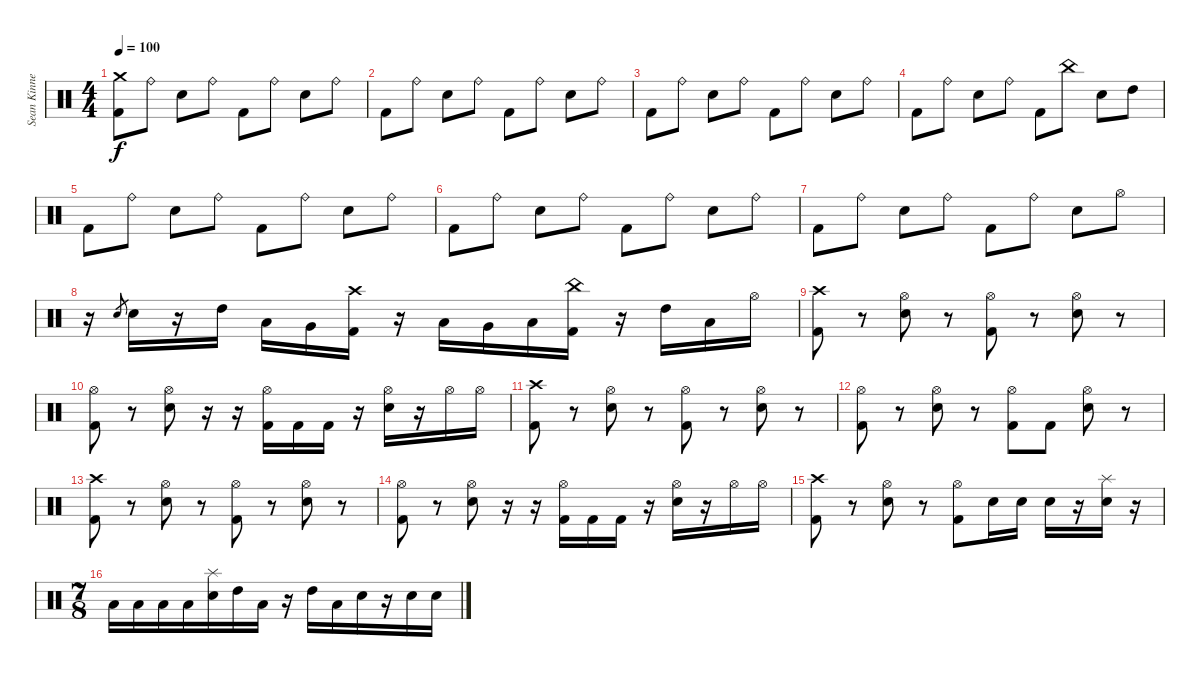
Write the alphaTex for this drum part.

\track ("Sean Kinney" "Sean Kinne") {instrument percussion}
\staff {score}
\articulation defaults
\ts (4 4)
\tempo 100
\clef neutral
\ks c
("Crash medium (hit)" "Kick (hit) 2").8{dy f} "Ride (bell)".8 "Snare (hit) 2".8 "Ride (bell)".8 "Kick (hit) 2".8 "Ride (bell)".8 "Snare (hit) 2".8 "Ride (bell)".8 |
"Kick (hit) 2".8 "Ride (bell)".8 "Snare (hit) 2".8 "Ride (bell)".8 "Kick (hit) 2".8 "Ride (bell)".8 "Snare (hit) 2".8 "Ride (bell)".8 |
"Kick (hit) 2".8 "Ride (bell)".8 "Snare (hit) 2".8 "Ride (bell)".8 "Kick (hit) 2".8 "Ride (bell)".8 "Snare (hit) 2".8 "Ride (bell)".8 |
"Kick (hit) 2".8 "Ride (bell)".8 "Snare (hit) 2".8 "Ride (bell)".8 "Kick (hit) 2".8 "China (hit)".8 "Snare (hit) 2".8 "High Tom (hit)".8 |
"Kick (hit) 2".8 "Ride (bell)".8 "Snare (hit) 2".8 "Ride (bell)".8 "Kick (hit) 2".8 "Ride (bell)".8 "Snare (hit) 2".8 "Ride (bell)".8 |
"Kick (hit) 2".8 "Ride (bell)".8 "Snare (hit) 2".8 "Ride (bell)".8 "Kick (hit) 2".8 "Ride (bell)".8 "Snare (hit) 2".8 "Ride (bell)".8 |
"Kick (hit) 2".8 "Ride (bell)".8 "Snare (hit) 2".8 "Ride (bell)".8 "Kick (hit) 2".8 "Ride (bell)".8 "Snare (hit) 2".8 "Hi-Hat (open)".8 |
r.16 "Snare (hit) 2".8{gr} "Snare (hit) 2".16 r.16 "High Tom (hit)".16 "Low Tom (hit)".16 "Very Low Tom (hit)".16 ("Crash high (hit)" "Kick (hit) 2").16 r.16 "Low Tom (hit)".16 "Very Low Tom (hit)".16 "Low Floor Tom (hit)".16 ("China (hit)" "Kick (hit) 2").16 r.16 "High Tom (hit)".16 "Low Tom (hit)".16 "Hi-Hat (open)".16 |
("Crash high (hit)" "Kick (hit) 2").8 r.8 ("Hi-Hat (open)" "Snare (hit) 2").8 r.8 ("Hi-Hat (open)" "Kick (hit) 2").8 r.8 ("Hi-Hat (open)" "Snare (hit) 2").8 r.8 |
("Hi-Hat (open)" "Kick (hit) 2").8 r.8 ("Hi-Hat (open)" "Snare (hit) 2").8 r.16 r.16 ("Hi-Hat (open)" "Kick (hit) 2").16 "Kick (hit) 2".16 "Kick (hit) 2".16 r.16 ("Hi-Hat (open)" "Snare (hit) 2").16 r.16 "Hi-Hat (open)".16 "Hi-Hat (open)".16 |
("Crash high (hit)" "Kick (hit) 2").8 r.8 ("Hi-Hat (open)" "Snare (hit) 2").8 r.8 ("Hi-Hat (open)" "Kick (hit) 2").8 r.8 ("Hi-Hat (open)" "Snare (hit) 2").8 r.8 |
("Hi-Hat (open)" "Kick (hit) 2").8 r.8 ("Hi-Hat (open)" "Snare (hit) 2").8 r.8 ("Hi-Hat (open)" "Kick (hit) 2").8 "Kick (hit) 2".8 ("Hi-Hat (open)" "Snare (hit) 2").8 r.8 |
("Crash high (hit)" "Kick (hit) 2").8 r.8 ("Hi-Hat (open)" "Snare (hit) 2").8 r.8 ("Hi-Hat (open)" "Kick (hit) 2").8 r.8 ("Hi-Hat (open)" "Snare (hit) 2").8 r.8 |
("Hi-Hat (open)" "Kick (hit) 2").8 r.8 ("Hi-Hat (open)" "Snare (hit) 2").8 r.16 r.16 ("Hi-Hat (open)" "Kick (hit) 2").16 "Kick (hit) 2".16 "Kick (hit) 2".16 r.16 ("Hi-Hat (open)" "Snare (hit) 2").16 r.16 "Hi-Hat (open)".16 "Hi-Hat (open)".16 |
("Crash high (hit)" "Kick (hit) 2").8 r.8 ("Hi-Hat (open)" "Snare (hit) 2").8 r.8 ("Hi-Hat (open)" "Kick (hit) 2").8 "Snare (hit) 2".16 "Snare (hit) 2".16 "Snare (hit) 2".16 r.16 ("Splash (hit)" "Snare (hit) 2").16 r.16 |
\ts (7 8)
"Low Tom (hit)".16 "Low Tom (hit)".16 "Low Tom (hit)".16 "Low Tom (hit)".16 ("Splash (hit)" "Snare (hit) 2").16 "High Tom (hit)".16 "Low Tom (hit)".16 r.16 "High Tom (hit)".16 "Low Tom (hit)".16 "Snare (hit) 2".16 r.16 "Snare (hit) 2".16 "Snare (hit) 2".16
